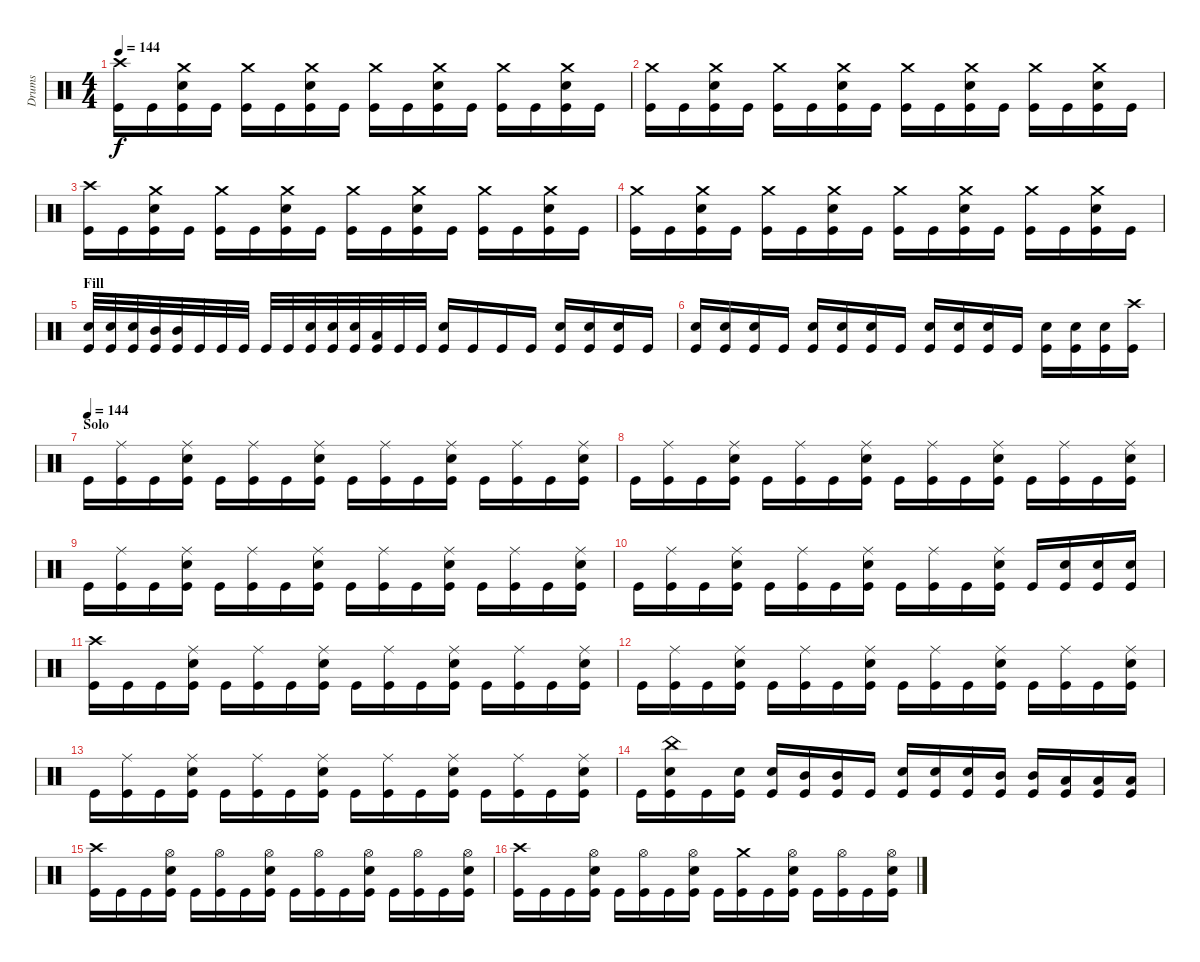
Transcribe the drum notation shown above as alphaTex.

\track ("Drums" "Drums") {instrument percussion}
\staff {score}
\articulation defaults
\ts (4 4)
\tempo 144
\clef neutral
\ks c
("Crash high (hit)" "Kick (hit)").16{dy f} "Kick (hit)".16 ("Crash medium (hit)" "Electric Snare (hit)" "Kick (hit)").16 "Kick (hit)".16 ("Crash medium (hit)" "Kick (hit)").16 "Kick (hit)".16 ("Crash medium (hit)" "Electric Snare (hit)" "Kick (hit)").16 "Kick (hit)".16 ("Crash medium (hit)" "Kick (hit)").16 "Kick (hit)".16 ("Crash medium (hit)" "Electric Snare (hit)" "Kick (hit)").16 "Kick (hit)".16 ("Crash medium (hit)" "Kick (hit)").16 "Kick (hit)".16 ("Crash medium (hit)" "Electric Snare (hit)" "Kick (hit)").16 "Kick (hit)".16 |
("Crash medium (hit)" "Kick (hit)").16 "Kick (hit)".16 ("Crash medium (hit)" "Electric Snare (hit)" "Kick (hit)").16 "Kick (hit)".16 ("Crash medium (hit)" "Kick (hit)").16 "Kick (hit)".16 ("Crash medium (hit)" "Electric Snare (hit)" "Kick (hit)").16 "Kick (hit)".16 ("Crash medium (hit)" "Kick (hit)").16 "Kick (hit)".16 ("Crash medium (hit)" "Electric Snare (hit)" "Kick (hit)").16 "Kick (hit)".16 ("Crash medium (hit)" "Kick (hit)").16 "Kick (hit)".16 ("Crash medium (hit)" "Electric Snare (hit)" "Kick (hit)").16 "Kick (hit)".16 |
("Crash high (hit)" "Kick (hit)").16 "Kick (hit)".16 ("Crash medium (hit)" "Electric Snare (hit)" "Kick (hit)").16 "Kick (hit)".16 ("Crash medium (hit)" "Kick (hit)").16 "Kick (hit)".16 ("Crash medium (hit)" "Electric Snare (hit)" "Kick (hit)").16 "Kick (hit)".16 ("Crash medium (hit)" "Kick (hit)").16 "Kick (hit)".16 ("Crash medium (hit)" "Electric Snare (hit)" "Kick (hit)").16 "Kick (hit)".16 ("Crash medium (hit)" "Kick (hit)").16 "Kick (hit)".16 ("Crash medium (hit)" "Electric Snare (hit)" "Kick (hit)").16 "Kick (hit)".16 |
("Crash medium (hit)" "Kick (hit)").16 "Kick (hit)".16 ("Crash medium (hit)" "Electric Snare (hit)" "Kick (hit)").16 "Kick (hit)".16 ("Crash medium (hit)" "Kick (hit)").16 "Kick (hit)".16 ("Crash medium (hit)" "Electric Snare (hit)" "Kick (hit)").16 "Kick (hit)".16 ("Crash medium (hit)" "Kick (hit)").16 "Kick (hit)".16 ("Crash medium (hit)" "Electric Snare (hit)" "Kick (hit)").16 "Kick (hit)".16 ("Crash medium (hit)" "Kick (hit)").16 "Kick (hit)".16 ("Crash medium (hit)" "Electric Snare (hit)" "Kick (hit)").16 "Kick (hit)".16 |
\section ("" "Fill")
("Electric Snare (hit)" "Kick (hit)").32 ("Electric Snare (hit)" "Kick (hit)").32 ("Electric Snare (hit)" "Kick (hit)").32 ("Mid Tom (hit)" "Kick (hit)").32 ("Mid Tom (hit)" "Kick (hit)").32 "Kick (hit)".32 "Kick (hit)".32 "Kick (hit)".32 "Kick (hit)".32 "Kick (hit)".32 ("Electric Snare (hit)" "Kick (hit)").32 ("Electric Snare (hit)" "Kick (hit)").32 ("Electric Snare (hit)" "Kick (hit)").32 ("Low Tom (hit)" "Kick (hit)").32 "Kick (hit)".32 "Kick (hit)".32 ("Electric Snare (hit)" "Kick (hit)").16 "Kick (hit)".16 "Kick (hit)".16 "Kick (hit)".16 ("Electric Snare (hit)" "Kick (hit)").16 ("Electric Snare (hit)" "Kick (hit)").16 ("Electric Snare (hit)" "Kick (hit)").16 "Kick (hit)".16 |
("Electric Snare (hit)" "Kick (hit)").16 ("Electric Snare (hit)" "Kick (hit)").16 ("Electric Snare (hit)" "Kick (hit)").16 "Kick (hit)".16 ("Electric Snare (hit)" "Kick (hit)").16 ("Electric Snare (hit)" "Kick (hit)").16 ("Electric Snare (hit)" "Kick (hit)").16 "Kick (hit)".16 ("Electric Snare (hit)" "Kick (hit)").16 ("Electric Snare (hit)" "Kick (hit)").16 ("Electric Snare (hit)" "Kick (hit)").16 "Kick (hit)".16 ("Electric Snare (hit)" "Kick (hit)").16 ("Electric Snare (hit)" "Kick (hit)").16 ("Electric Snare (hit)" "Kick (hit)").16 ("Crash high (hit)" "Kick (hit)").16 |
\section ("" "Solo")
\tempo (144)
"Kick (hit)".16 ("Ride (middle)" "Kick (hit)").16 "Kick (hit)".16 ("Ride (middle)" "Electric Snare (hit)" "Kick (hit)").16 "Kick (hit)".16 ("Ride (middle)" "Kick (hit)").16 "Kick (hit)".16 ("Ride (middle)" "Electric Snare (hit)" "Kick (hit)").16 "Kick (hit)".16 ("Ride (middle)" "Kick (hit)").16 "Kick (hit)".16 ("Ride (middle)" "Electric Snare (hit)" "Kick (hit)").16 "Kick (hit)".16 ("Ride (middle)" "Kick (hit)").16 "Kick (hit)".16 ("Ride (middle)" "Electric Snare (hit)" "Kick (hit)").16 |
"Kick (hit)".16 ("Ride (middle)" "Kick (hit)").16 "Kick (hit)".16 ("Ride (middle)" "Electric Snare (hit)" "Kick (hit)").16 "Kick (hit)".16 ("Ride (middle)" "Kick (hit)").16 "Kick (hit)".16 ("Ride (middle)" "Electric Snare (hit)" "Kick (hit)").16 "Kick (hit)".16 ("Ride (middle)" "Kick (hit)").16 "Kick (hit)".16 ("Ride (middle)" "Electric Snare (hit)" "Kick (hit)").16 "Kick (hit)".16 ("Ride (middle)" "Kick (hit)").16 "Kick (hit)".16 ("Ride (middle)" "Electric Snare (hit)" "Kick (hit)").16 |
"Kick (hit)".16 ("Ride (middle)" "Kick (hit)").16 "Kick (hit)".16 ("Ride (middle)" "Electric Snare (hit)" "Kick (hit)").16 "Kick (hit)".16 ("Ride (middle)" "Kick (hit)").16 "Kick (hit)".16 ("Ride (middle)" "Electric Snare (hit)" "Kick (hit)").16 "Kick (hit)".16 ("Ride (middle)" "Kick (hit)").16 "Kick (hit)".16 ("Ride (middle)" "Electric Snare (hit)" "Kick (hit)").16 "Kick (hit)".16 ("Ride (middle)" "Kick (hit)").16 "Kick (hit)".16 ("Ride (middle)" "Electric Snare (hit)" "Kick (hit)").16 |
"Kick (hit)".16 ("Ride (middle)" "Kick (hit)").16 "Kick (hit)".16 ("Ride (middle)" "Electric Snare (hit)" "Kick (hit)").16 "Kick (hit)".16 ("Ride (middle)" "Kick (hit)").16 "Kick (hit)".16 ("Ride (middle)" "Electric Snare (hit)" "Kick (hit)").16 "Kick (hit)".16 ("Ride (middle)" "Kick (hit)").16 "Kick (hit)".16 ("Ride (middle)" "Electric Snare (hit)" "Kick (hit)").16 "Kick (hit)".16 ("Electric Snare (hit)" "Kick (hit)").16 ("Electric Snare (hit)" "Kick (hit)").16 ("Electric Snare (hit)" "Kick (hit)").16 |
("Crash high (hit)" "Kick (hit)").16 "Kick (hit)".16 "Kick (hit)".16 ("Ride (middle)" "Electric Snare (hit)" "Kick (hit)").16 "Kick (hit)".16 ("Ride (middle)" "Kick (hit)").16 "Kick (hit)".16 ("Ride (middle)" "Electric Snare (hit)" "Kick (hit)").16 "Kick (hit)".16 ("Ride (middle)" "Kick (hit)").16 "Kick (hit)".16 ("Ride (middle)" "Electric Snare (hit)" "Kick (hit)").16 "Kick (hit)".16 ("Ride (middle)" "Kick (hit)").16 "Kick (hit)".16 ("Ride (middle)" "Electric Snare (hit)" "Kick (hit)").16 |
"Kick (hit)".16 ("Ride (middle)" "Kick (hit)").16 "Kick (hit)".16 ("Ride (middle)" "Electric Snare (hit)" "Kick (hit)").16 "Kick (hit)".16 ("Ride (middle)" "Kick (hit)").16 "Kick (hit)".16 ("Ride (middle)" "Electric Snare (hit)" "Kick (hit)").16 "Kick (hit)".16 ("Ride (middle)" "Kick (hit)").16 "Kick (hit)".16 ("Ride (middle)" "Electric Snare (hit)" "Kick (hit)").16 "Kick (hit)".16 ("Ride (middle)" "Kick (hit)").16 "Kick (hit)".16 ("Ride (middle)" "Electric Snare (hit)" "Kick (hit)").16 |
"Kick (hit)".16 ("Ride (middle)" "Kick (hit)").16 "Kick (hit)".16 ("Ride (middle)" "Electric Snare (hit)" "Kick (hit)").16 "Kick (hit)".16 ("Ride (middle)" "Kick (hit)").16 "Kick (hit)".16 ("Ride (middle)" "Electric Snare (hit)" "Kick (hit)").16 "Kick (hit)".16 ("Ride (middle)" "Kick (hit)").16 "Kick (hit)".16 ("Ride (middle)" "Electric Snare (hit)" "Kick (hit)").16 "Kick (hit)".16 ("Ride (middle)" "Kick (hit)").16 "Kick (hit)".16 ("Ride (middle)" "Electric Snare (hit)" "Kick (hit)").16 |
"Kick (hit)".16 ("China (hit)" "Electric Snare (hit)" "Kick (hit)").16 "Kick (hit)".16 ("Electric Snare (hit)" "Kick (hit)").16 ("Electric Snare (hit)" "Kick (hit)").16 ("Mid Tom (hit)" "Kick (hit)").16 ("Mid Tom (hit)" "Kick (hit)").16 "Kick (hit)".16 ("Electric Snare (hit)" "Kick (hit)").16 ("Electric Snare (hit)" "Kick (hit)").16 ("Electric Snare (hit)" "Kick (hit)").16 ("Mid Tom (hit)" "Kick (hit)").16 ("Mid Tom (hit)" "Kick (hit)").16 ("Low Tom (hit)" "Kick (hit)").16 ("Low Tom (hit)" "Kick (hit)").16 ("Low Tom (hit)" "Kick (hit)").16 |
("Crash high (hit)" "Kick (hit)").16 "Kick (hit)".16 "Kick (hit)".16 ("Hi-Hat (open)" "Electric Snare (hit)" "Kick (hit)").16 "Kick (hit)".16 ("Hi-Hat (open)" "Kick (hit)").16 "Kick (hit)".16 ("Hi-Hat (open)" "Electric Snare (hit)" "Kick (hit)").16 "Kick (hit)".16 ("Hi-Hat (open)" "Kick (hit)").16 "Kick (hit)".16 ("Hi-Hat (open)" "Electric Snare (hit)" "Kick (hit)").16 "Kick (hit)".16 ("Hi-Hat (open)" "Kick (hit)").16 "Kick (hit)".16 ("Hi-Hat (open)" "Electric Snare (hit)" "Kick (hit)").16 |
("Crash high (hit)" "Kick (hit)").16 "Kick (hit)".16 "Kick (hit)".16 ("Hi-Hat (open)" "Electric Snare (hit)" "Kick (hit)").16 "Kick (hit)".16 ("Hi-Hat (open)" "Kick (hit)").16 "Kick (hit)".16 ("Hi-Hat (open)" "Electric Snare (hit)" "Kick (hit)").16 "Kick (hit)".16 ("Crash medium (hit)" "Kick (hit)").16 "Kick (hit)".16 ("Hi-Hat (open)" "Electric Snare (hit)" "Kick (hit)").16 "Kick (hit)".16 ("Hi-Hat (open)" "Kick (hit)").16 "Kick (hit)".16 ("Hi-Hat (open)" "Electric Snare (hit)" "Kick (hit)").16
